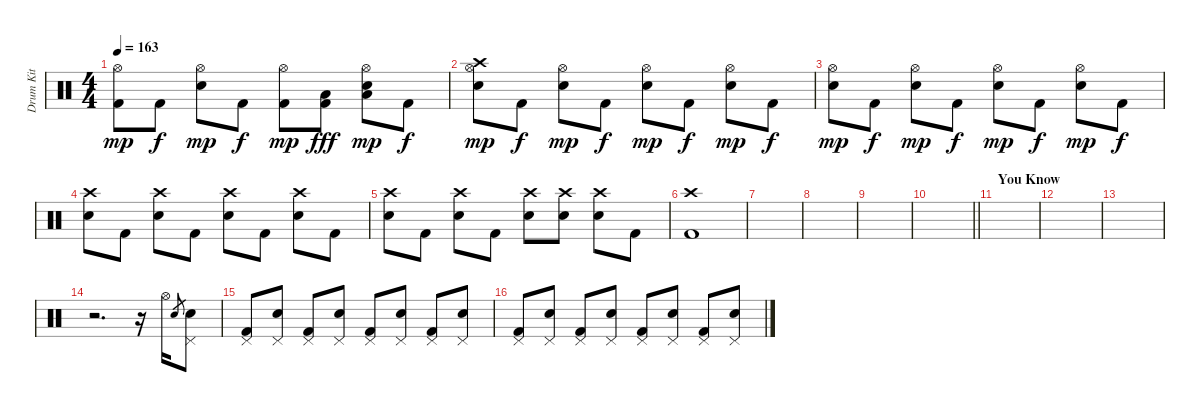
\track ("Drum Kit" "Drum Kit") {instrument percussion}
\staff {score}
\articulation defaults
\ts (4 4)
\tempo 163
\clef neutral
\ks c
("Hi-Hat (open)" "Kick (hit) 2").8{dy mp} "Kick (hit) 2".8{dy f} ("Hi-Hat (open)" "Electric Snare (hit)").8{dy mp} "Kick (hit) 2".8{dy f} ("Hi-Hat (open)" "Kick (hit) 2").8{dy mp} ("Low Floor Tom (hit)" "Kick (hit) 2").8{dy fff} ("Low Floor Tom (hit)" "Hi-Hat (open)" "Electric Snare (hit)").8{dy mp} "Kick (hit) 2".8{dy f} |
("Crash high (hit)" "Hi-Hat (open)" "Electric Snare (hit)").8{dy mp} "Kick (hit) 2".8{dy f} ("Hi-Hat (open)" "Electric Snare (hit)").8{dy mp} "Kick (hit) 2".8{dy f} ("Hi-Hat (open)" "Electric Snare (hit)").8{dy mp} "Kick (hit) 2".8{dy f} ("Hi-Hat (open)" "Electric Snare (hit)").8{dy mp} "Kick (hit) 2".8{dy f} |
("Hi-Hat (open)" "Electric Snare (hit)").8{dy mp} "Kick (hit) 2".8{dy f} ("Hi-Hat (open)" "Electric Snare (hit)").8{dy mp} "Kick (hit) 2".8{dy f} ("Hi-Hat (open)" "Electric Snare (hit)").8{dy mp} "Kick (hit) 2".8{dy f} ("Hi-Hat (open)" "Electric Snare (hit)").8{dy mp} "Kick (hit) 2".8{dy f} |
("Crash high (hit)" "Electric Snare (hit)").8 "Kick (hit) 2".8 ("Crash high (hit)" "Electric Snare (hit)").8 "Kick (hit) 2".8 ("Crash high (hit)" "Electric Snare (hit)").8 "Kick (hit) 2".8 ("Crash high (hit)" "Electric Snare (hit)").8 "Kick (hit) 2".8 |
("Crash high (hit)" "Electric Snare (hit)").8 "Kick (hit) 2".8 ("Crash high (hit)" "Electric Snare (hit)").8 "Kick (hit) 2".8 ("Crash high (hit)" "Electric Snare (hit)").8 ("Crash high (hit)" "Electric Snare (hit)").8 ("Crash high (hit)" "Electric Snare (hit)").8 "Kick (hit) 2".8 |
("Crash high (hit)" "Kick (hit) 2").1 |
|
|
|
\barLineRight lightlight
|
\section ("" "You Know")
|
|
|
r.2{d} r.16 "Hi-Hat (open)".16 "Electric Snare (hit)".8{gr} ("Pedal Hi-Hat (hit)" "Electric Snare (hit)").8 |
("Pedal Hi-Hat (hit)" "Kick (hit) 2").8 ("Pedal Hi-Hat (hit)" "Electric Snare (hit)").8 ("Pedal Hi-Hat (hit)" "Kick (hit) 2").8 ("Pedal Hi-Hat (hit)" "Electric Snare (hit)").8 ("Pedal Hi-Hat (hit)" "Kick (hit) 2").8 ("Pedal Hi-Hat (hit)" "Electric Snare (hit)").8 ("Pedal Hi-Hat (hit)" "Kick (hit) 2").8 ("Pedal Hi-Hat (hit)" "Electric Snare (hit)").8 |
("Pedal Hi-Hat (hit)" "Kick (hit) 2").8 ("Pedal Hi-Hat (hit)" "Electric Snare (hit)").8 ("Pedal Hi-Hat (hit)" "Kick (hit) 2").8 ("Pedal Hi-Hat (hit)" "Electric Snare (hit)").8 ("Pedal Hi-Hat (hit)" "Kick (hit) 2").8 ("Pedal Hi-Hat (hit)" "Electric Snare (hit)").8 ("Pedal Hi-Hat (hit)" "Kick (hit) 2").8 ("Pedal Hi-Hat (hit)" "Electric Snare (hit)").8
